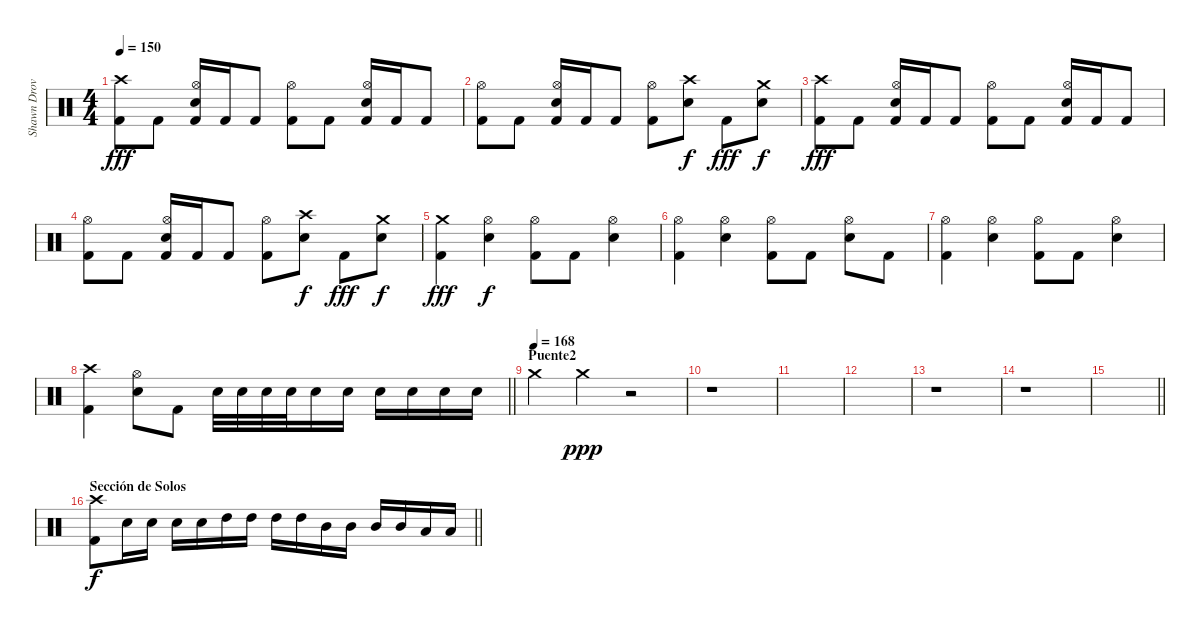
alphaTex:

\track ("Shawn Drover" "Shawn Drov") {instrument percussion}
\staff {score}
\articulation defaults
\ts (4 4)
\tempo 150
\clef neutral
\ks c
("Crash high (hit)" "Kick (hit) 2").8{dy fff} "Kick (hit) 2".8 ("Hi-Hat (open)" "Electric Snare (hit)" "Kick (hit) 2").16 "Kick (hit) 2".16 "Kick (hit) 2".8 ("Hi-Hat (open)" "Kick (hit) 2").8 "Kick (hit) 2".8 ("Hi-Hat (open)" "Electric Snare (hit)" "Kick (hit) 2").16 "Kick (hit) 2".16 "Kick (hit) 2".8 |
("Hi-Hat (open)" "Kick (hit) 2").8 "Kick (hit) 2".8 ("Hi-Hat (open)" "Electric Snare (hit)" "Kick (hit) 2").16 "Kick (hit) 2".16 "Kick (hit) 2".8 ("Hi-Hat (open)" "Kick (hit) 2").8 ("Crash high (hit)" "Electric Snare (hit)").8{dy f} "Kick (hit) 2".8{dy fff} ("Crash medium (hit)" "Electric Snare (hit)").8{dy f} |
("Crash high (hit)" "Kick (hit) 2").8{dy fff} "Kick (hit) 2".8 ("Hi-Hat (open)" "Electric Snare (hit)" "Kick (hit) 2").16 "Kick (hit) 2".16 "Kick (hit) 2".8 ("Hi-Hat (open)" "Kick (hit) 2").8 "Kick (hit) 2".8 ("Hi-Hat (open)" "Electric Snare (hit)" "Kick (hit) 2").16 "Kick (hit) 2".16 "Kick (hit) 2".8 |
("Hi-Hat (open)" "Kick (hit) 2").8 "Kick (hit) 2".8 ("Hi-Hat (open)" "Electric Snare (hit)" "Kick (hit) 2").16 "Kick (hit) 2".16 "Kick (hit) 2".8 ("Hi-Hat (open)" "Kick (hit) 2").8 ("Crash high (hit)" "Electric Snare (hit)").8{dy f} "Kick (hit) 2".8{dy fff} ("Crash medium (hit)" "Electric Snare (hit)").8{dy f} |
("Crash medium (hit)" "Kick (hit) 2").4{dy fff} ("Hi-Hat (open)" "Electric Snare (hit)").4{dy f} ("Hi-Hat (open)" "Kick (hit) 2").8 "Kick (hit) 2".8 ("Hi-Hat (open)" "Electric Snare (hit)").4 |
("Hi-Hat (open)" "Kick (hit) 2").4 ("Hi-Hat (open)" "Electric Snare (hit)").4 ("Hi-Hat (open)" "Kick (hit) 2").8 "Kick (hit) 2".8 ("Hi-Hat (open)" "Electric Snare (hit)").8 "Kick (hit) 2".8 |
("Hi-Hat (open)" "Kick (hit) 2").4 ("Hi-Hat (open)" "Electric Snare (hit)").4 ("Hi-Hat (open)" "Kick (hit) 2").8 "Kick (hit) 2".8 ("Hi-Hat (open)" "Electric Snare (hit)").4 |
\barLineRight lightlight
("Crash high (hit)" "Kick (hit) 2").4 ("Hi-Hat (open)" "Electric Snare (hit)").8 "Kick (hit) 2".8 "Electric Snare (hit)".32 "Electric Snare (hit)".32 "Electric Snare (hit)".32 "Electric Snare (hit)".32 "Electric Snare (hit)".16 "Electric Snare (hit)".16 "Electric Snare (hit)".16 "Electric Snare (hit)".16 "Electric Snare (hit)".16 "Electric Snare (hit)".16 |
\section ("" "Puente2")
\tempo (168)
"Crash medium (hit)".4 "Crash medium (hit)".4{dy ppp} r.2 |
r.1 |
|
|
r.1 |
r.1 |
\barLineRight lightlight
|
\section ("" "Sección de Solos")
\barLineRight lightlight
("Crash high (hit)" "Kick (hit) 2").8{dy f} "Electric Snare (hit)".16 "Electric Snare (hit)".16 "Electric Snare (hit)".16 "Electric Snare (hit)".16 "High Tom (hit)".16 "High Tom (hit)".16 "High Tom (hit)".16 "High Tom (hit)".16 "Mid Tom (hit)".16 "Mid Tom (hit)".16 "Mid Tom (hit)".16 "Mid Tom (hit)".16 "Low Tom (hit)".16 "Low Tom (hit)".16
